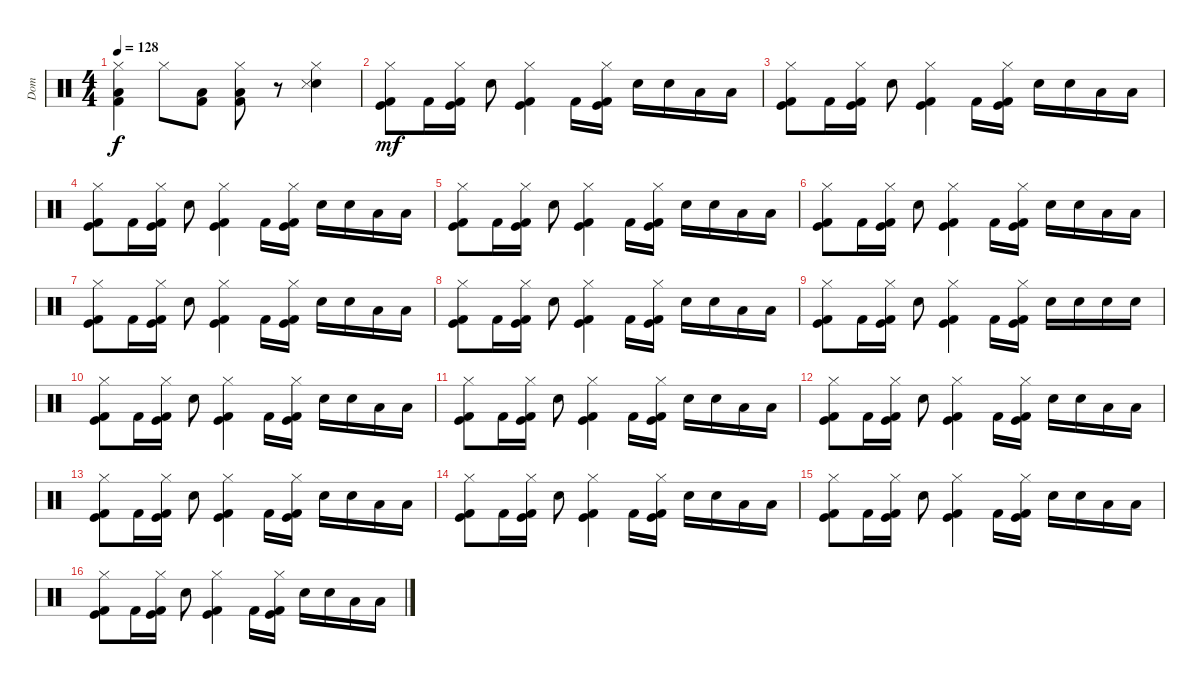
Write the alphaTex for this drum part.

\track ("Dom " "Dom ") {instrument percussion}
\staff {score}
\articulation defaults
\ts (4 4)
\tempo 128
\clef neutral
\ks c
("Hi-Hat (closed)" "Low Floor Tom (hit)" "Kick (hit) 2").4{dy f} "Hi-Hat (closed)".8 ("Low Floor Tom (hit)" "Kick (hit) 2").8 ("Hi-Hat (closed)" "Low Floor Tom (hit)" "Kick (hit) 2").8 r.8 ("Hi-Hat (closed)" "Electric Snare (hit)" "Metronome (hit)").4 |
("Hi-Hat (closed)" "Kick (hit)" "Kick (hit) 2").8{dy mf} "Kick (hit) 2".16 ("Hi-Hat (closed)" "Kick (hit)" "Kick (hit) 2").16 "Electric Snare (hit)".8 ("Hi-Hat (closed)" "Kick (hit)" "Kick (hit) 2").4 "Kick (hit) 2".16 ("Hi-Hat (closed)" "Kick (hit)" "Kick (hit) 2").16 "Electric Snare (hit)".16 "Electric Snare (hit)".16 "Low Floor Tom (hit)".16 "Low Floor Tom (hit)".16 |
("Hi-Hat (closed)" "Kick (hit)" "Kick (hit) 2").8 "Kick (hit) 2".16 ("Hi-Hat (closed)" "Kick (hit)" "Kick (hit) 2").16 "Electric Snare (hit)".8 ("Hi-Hat (closed)" "Kick (hit)" "Kick (hit) 2").4 "Kick (hit) 2".16 ("Hi-Hat (closed)" "Kick (hit)" "Kick (hit) 2").16 "Electric Snare (hit)".16 "Electric Snare (hit)".16 "Low Floor Tom (hit)".16 "Low Floor Tom (hit)".16 |
("Hi-Hat (closed)" "Kick (hit)" "Kick (hit) 2").8 "Kick (hit) 2".16 ("Hi-Hat (closed)" "Kick (hit)" "Kick (hit) 2").16 "Electric Snare (hit)".8 ("Hi-Hat (closed)" "Kick (hit)" "Kick (hit) 2").4 "Kick (hit) 2".16 ("Hi-Hat (closed)" "Kick (hit)" "Kick (hit) 2").16 "Electric Snare (hit)".16 "Electric Snare (hit)".16 "Low Floor Tom (hit)".16 "Low Floor Tom (hit)".16 |
("Hi-Hat (closed)" "Kick (hit)" "Kick (hit) 2").8 "Kick (hit) 2".16 ("Hi-Hat (closed)" "Kick (hit)" "Kick (hit) 2").16 "Electric Snare (hit)".8 ("Hi-Hat (closed)" "Kick (hit)" "Kick (hit) 2").4 "Kick (hit) 2".16 ("Hi-Hat (closed)" "Kick (hit)" "Kick (hit) 2").16 "Electric Snare (hit)".16 "Electric Snare (hit)".16 "Low Floor Tom (hit)".16 "Low Floor Tom (hit)".16 |
("Hi-Hat (closed)" "Kick (hit)" "Kick (hit) 2").8 "Kick (hit) 2".16 ("Hi-Hat (closed)" "Kick (hit)" "Kick (hit) 2").16 "Electric Snare (hit)".8 ("Hi-Hat (closed)" "Kick (hit)" "Kick (hit) 2").4 "Kick (hit) 2".16 ("Hi-Hat (closed)" "Kick (hit)" "Kick (hit) 2").16 "Electric Snare (hit)".16 "Electric Snare (hit)".16 "Low Floor Tom (hit)".16 "Low Floor Tom (hit)".16 |
("Hi-Hat (closed)" "Kick (hit)" "Kick (hit) 2").8 "Kick (hit) 2".16 ("Hi-Hat (closed)" "Kick (hit)" "Kick (hit) 2").16 "Electric Snare (hit)".8 ("Hi-Hat (closed)" "Kick (hit)" "Kick (hit) 2").4 "Kick (hit) 2".16 ("Hi-Hat (closed)" "Kick (hit)" "Kick (hit) 2").16 "Electric Snare (hit)".16 "Electric Snare (hit)".16 "Low Floor Tom (hit)".16 "Low Floor Tom (hit)".16 |
("Hi-Hat (closed)" "Kick (hit)" "Kick (hit) 2").8 "Kick (hit) 2".16 ("Hi-Hat (closed)" "Kick (hit)" "Kick (hit) 2").16 "Electric Snare (hit)".8 ("Hi-Hat (closed)" "Kick (hit)" "Kick (hit) 2").4 "Kick (hit) 2".16 ("Hi-Hat (closed)" "Kick (hit)" "Kick (hit) 2").16 "Electric Snare (hit)".16 "Electric Snare (hit)".16 "Low Floor Tom (hit)".16 "Low Floor Tom (hit)".16 |
("Hi-Hat (closed)" "Kick (hit)" "Kick (hit) 2").8 "Kick (hit) 2".16 ("Hi-Hat (closed)" "Kick (hit)" "Kick (hit) 2").16 "Electric Snare (hit)".8 ("Hi-Hat (closed)" "Kick (hit)" "Kick (hit) 2").4 "Kick (hit) 2".16 ("Hi-Hat (closed)" "Kick (hit)" "Kick (hit) 2").16 "Electric Snare (hit)".16 "Electric Snare (hit)".16 "Electric Snare (hit)".16 "Electric Snare (hit)".16 |
("Hi-Hat (closed)" "Kick (hit)" "Kick (hit) 2").8 "Kick (hit) 2".16 ("Hi-Hat (closed)" "Kick (hit)" "Kick (hit) 2").16 "Electric Snare (hit)".8 ("Hi-Hat (closed)" "Kick (hit)" "Kick (hit) 2").4 "Kick (hit) 2".16 ("Hi-Hat (closed)" "Kick (hit)" "Kick (hit) 2").16 "Electric Snare (hit)".16 "Electric Snare (hit)".16 "Low Floor Tom (hit)".16 "Low Floor Tom (hit)".16 |
("Hi-Hat (closed)" "Kick (hit)" "Kick (hit) 2").8 "Kick (hit) 2".16 ("Hi-Hat (closed)" "Kick (hit)" "Kick (hit) 2").16 "Electric Snare (hit)".8 ("Hi-Hat (closed)" "Kick (hit)" "Kick (hit) 2").4 "Kick (hit) 2".16 ("Hi-Hat (closed)" "Kick (hit)" "Kick (hit) 2").16 "Electric Snare (hit)".16 "Electric Snare (hit)".16 "Low Floor Tom (hit)".16 "Low Floor Tom (hit)".16 |
("Hi-Hat (closed)" "Kick (hit)" "Kick (hit) 2").8 "Kick (hit) 2".16 ("Hi-Hat (closed)" "Kick (hit)" "Kick (hit) 2").16 "Electric Snare (hit)".8 ("Hi-Hat (closed)" "Kick (hit)" "Kick (hit) 2").4 "Kick (hit) 2".16 ("Hi-Hat (closed)" "Kick (hit)" "Kick (hit) 2").16 "Electric Snare (hit)".16 "Electric Snare (hit)".16 "Low Floor Tom (hit)".16 "Low Floor Tom (hit)".16 |
("Hi-Hat (closed)" "Kick (hit)" "Kick (hit) 2").8 "Kick (hit) 2".16 ("Hi-Hat (closed)" "Kick (hit)" "Kick (hit) 2").16 "Electric Snare (hit)".8 ("Hi-Hat (closed)" "Kick (hit)" "Kick (hit) 2").4 "Kick (hit) 2".16 ("Hi-Hat (closed)" "Kick (hit)" "Kick (hit) 2").16 "Electric Snare (hit)".16 "Electric Snare (hit)".16 "Low Floor Tom (hit)".16 "Low Floor Tom (hit)".16 |
("Hi-Hat (closed)" "Kick (hit)" "Kick (hit) 2").8 "Kick (hit) 2".16 ("Hi-Hat (closed)" "Kick (hit)" "Kick (hit) 2").16 "Electric Snare (hit)".8 ("Hi-Hat (closed)" "Kick (hit)" "Kick (hit) 2").4 "Kick (hit) 2".16 ("Hi-Hat (closed)" "Kick (hit)" "Kick (hit) 2").16 "Electric Snare (hit)".16 "Electric Snare (hit)".16 "Low Floor Tom (hit)".16 "Low Floor Tom (hit)".16 |
("Hi-Hat (closed)" "Kick (hit)" "Kick (hit) 2").8 "Kick (hit) 2".16 ("Hi-Hat (closed)" "Kick (hit)" "Kick (hit) 2").16 "Electric Snare (hit)".8 ("Hi-Hat (closed)" "Kick (hit)" "Kick (hit) 2").4 "Kick (hit) 2".16 ("Hi-Hat (closed)" "Kick (hit)" "Kick (hit) 2").16 "Electric Snare (hit)".16 "Electric Snare (hit)".16 "Low Floor Tom (hit)".16 "Low Floor Tom (hit)".16 |
("Hi-Hat (closed)" "Kick (hit)" "Kick (hit) 2").8 "Kick (hit) 2".16 ("Hi-Hat (closed)" "Kick (hit)" "Kick (hit) 2").16 "Electric Snare (hit)".8 ("Hi-Hat (closed)" "Kick (hit)" "Kick (hit) 2").4 "Kick (hit) 2".16 ("Hi-Hat (closed)" "Kick (hit)" "Kick (hit) 2").16 "Electric Snare (hit)".16 "Electric Snare (hit)".16 "Low Floor Tom (hit)".16 "Low Floor Tom (hit)".16
